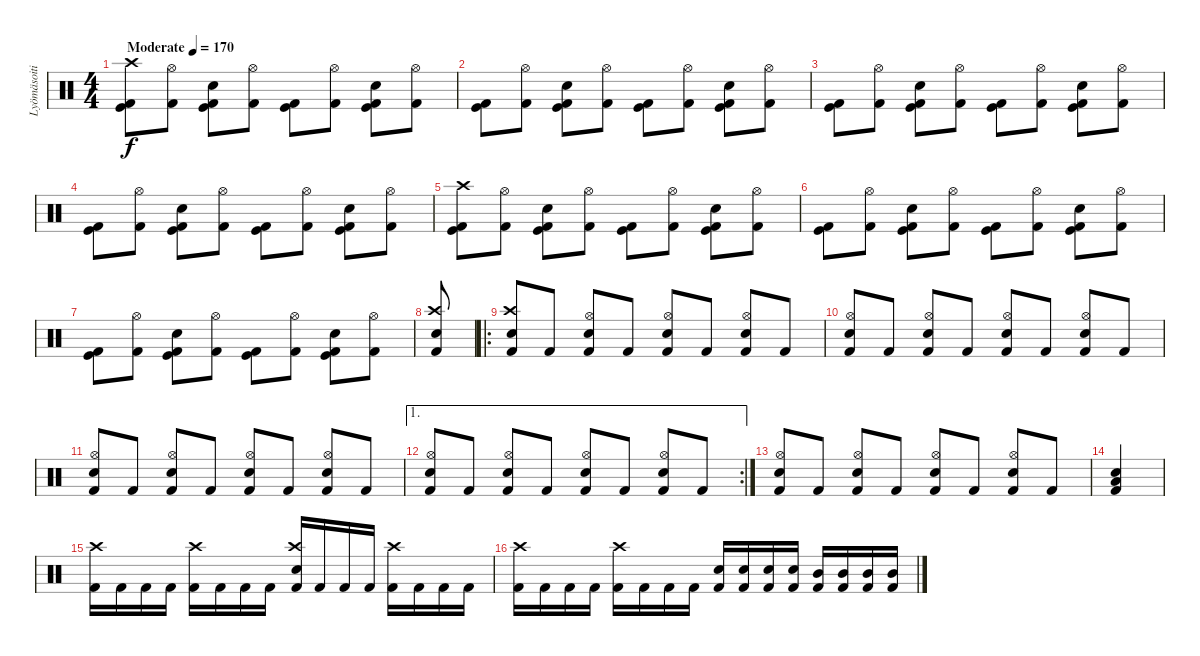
\track ("Lyömäsoitin" "Lyömäsoiti") {instrument percussion}
\staff {score}
\articulation defaults
\ts (4 4)
\tempo (170 "Moderate")
\clef neutral
\ks c
("Kick (hit)" "Kick (hit) 2" "Crash high (hit)").8{dy f} ("Kick (hit) 2" "Hi-Hat (open)").8 ("Kick (hit)" "Kick (hit) 2" "Electric Snare (hit)").8 ("Kick (hit) 2" "Hi-Hat (open)").8 ("Kick (hit)" "Kick (hit) 2").8 ("Kick (hit) 2" "Hi-Hat (open)").8 ("Kick (hit)" "Kick (hit) 2" "Electric Snare (hit)").8 ("Kick (hit) 2" "Hi-Hat (open)").8 |
("Kick (hit)" "Kick (hit) 2").8 ("Kick (hit) 2" "Hi-Hat (open)").8 ("Kick (hit)" "Kick (hit) 2" "Electric Snare (hit)").8 ("Kick (hit) 2" "Hi-Hat (open)").8 ("Kick (hit)" "Kick (hit) 2").8 ("Kick (hit) 2" "Hi-Hat (open)").8 ("Kick (hit)" "Kick (hit) 2" "Electric Snare (hit)").8 ("Kick (hit) 2" "Hi-Hat (open)").8 |
("Kick (hit)" "Kick (hit) 2").8 ("Kick (hit) 2" "Hi-Hat (open)").8 ("Kick (hit)" "Kick (hit) 2" "Electric Snare (hit)").8 ("Kick (hit) 2" "Hi-Hat (open)").8 ("Kick (hit)" "Kick (hit) 2").8 ("Kick (hit) 2" "Hi-Hat (open)").8 ("Kick (hit)" "Kick (hit) 2" "Electric Snare (hit)").8 ("Kick (hit) 2" "Hi-Hat (open)").8 |
("Kick (hit)" "Kick (hit) 2").8 ("Kick (hit) 2" "Hi-Hat (open)").8 ("Kick (hit)" "Kick (hit) 2" "Electric Snare (hit)").8 ("Kick (hit) 2" "Hi-Hat (open)").8 ("Kick (hit)" "Kick (hit) 2").8 ("Kick (hit) 2" "Hi-Hat (open)").8 ("Kick (hit)" "Kick (hit) 2" "Electric Snare (hit)").8 ("Kick (hit) 2" "Hi-Hat (open)").8 |
("Kick (hit)" "Kick (hit) 2" "Crash high (hit)").8 ("Kick (hit) 2" "Hi-Hat (open)").8 ("Kick (hit)" "Kick (hit) 2" "Electric Snare (hit)").8 ("Kick (hit) 2" "Hi-Hat (open)").8 ("Kick (hit)" "Kick (hit) 2").8 ("Kick (hit) 2" "Hi-Hat (open)").8 ("Kick (hit)" "Kick (hit) 2" "Electric Snare (hit)").8 ("Kick (hit) 2" "Hi-Hat (open)").8 |
("Kick (hit)" "Kick (hit) 2").8 ("Kick (hit) 2" "Hi-Hat (open)").8 ("Kick (hit)" "Kick (hit) 2" "Electric Snare (hit)").8 ("Kick (hit) 2" "Hi-Hat (open)").8 ("Kick (hit)" "Kick (hit) 2").8 ("Kick (hit) 2" "Hi-Hat (open)").8 ("Kick (hit)" "Kick (hit) 2" "Electric Snare (hit)").8 ("Kick (hit) 2" "Hi-Hat (open)").8 |
("Kick (hit)" "Kick (hit) 2").8 ("Kick (hit) 2" "Hi-Hat (open)").8 ("Kick (hit)" "Kick (hit) 2" "Electric Snare (hit)").8 ("Kick (hit) 2" "Hi-Hat (open)").8 ("Kick (hit)" "Kick (hit) 2").8 ("Kick (hit) 2" "Hi-Hat (open)").8 ("Kick (hit)" "Kick (hit) 2" "Electric Snare (hit)").8 ("Kick (hit) 2" "Hi-Hat (open)").8 |
("Kick (hit) 2" "Electric Snare (hit)" "Crash high (hit)").8 |
\ro
("Kick (hit) 2" "Electric Snare (hit)" "Crash high (hit)").8 "Kick (hit) 2".8 ("Kick (hit) 2" "Electric Snare (hit)" "Hi-Hat (open)").8 "Kick (hit) 2".8 ("Kick (hit) 2" "Electric Snare (hit)" "Hi-Hat (open)").8 "Kick (hit) 2".8 ("Kick (hit) 2" "Electric Snare (hit)" "Hi-Hat (open)").8 "Kick (hit) 2".8 |
("Kick (hit) 2" "Electric Snare (hit)" "Hi-Hat (open)").8 "Kick (hit) 2".8 ("Kick (hit) 2" "Electric Snare (hit)" "Hi-Hat (open)").8 "Kick (hit) 2".8 ("Kick (hit) 2" "Electric Snare (hit)" "Hi-Hat (open)").8 "Kick (hit) 2".8 ("Kick (hit) 2" "Electric Snare (hit)" "Hi-Hat (open)").8 "Kick (hit) 2".8 |
("Kick (hit) 2" "Electric Snare (hit)" "Hi-Hat (open)").8 "Kick (hit) 2".8 ("Kick (hit) 2" "Electric Snare (hit)" "Hi-Hat (open)").8 "Kick (hit) 2".8 ("Kick (hit) 2" "Electric Snare (hit)" "Hi-Hat (open)").8 "Kick (hit) 2".8 ("Kick (hit) 2" "Electric Snare (hit)" "Hi-Hat (open)").8 "Kick (hit) 2".8 |
\ae 1
\rc 2
("Kick (hit) 2" "Electric Snare (hit)" "Hi-Hat (open)").8 "Kick (hit) 2".8 ("Kick (hit) 2" "Electric Snare (hit)" "Hi-Hat (open)").8 "Kick (hit) 2".8 ("Kick (hit) 2" "Electric Snare (hit)" "Hi-Hat (open)").8 "Kick (hit) 2".8 ("Kick (hit) 2" "Electric Snare (hit)" "Hi-Hat (open)").8 "Kick (hit) 2".8 |
("Kick (hit) 2" "Electric Snare (hit)" "Hi-Hat (open)").8 "Kick (hit) 2".8 ("Kick (hit) 2" "Electric Snare (hit)" "Hi-Hat (open)").8 "Kick (hit) 2".8 ("Kick (hit) 2" "Electric Snare (hit)" "Hi-Hat (open)").8 "Kick (hit) 2".8 ("Kick (hit) 2" "Electric Snare (hit)" "Hi-Hat (open)").8 "Kick (hit) 2".8 |
("Kick (hit) 2" "Electric Snare (hit)" "Low Tom (hit)").4 |
("Kick (hit) 2" "Crash high (hit)").16 "Kick (hit) 2".16 "Kick (hit) 2".16 "Kick (hit) 2".16 ("Kick (hit) 2" "Crash high (hit)").16 "Kick (hit) 2".16 "Kick (hit) 2".16 "Kick (hit) 2".16 ("Kick (hit) 2" "Electric Snare (hit)" "Crash high (hit)").16 "Kick (hit) 2".16 "Kick (hit) 2".16 "Kick (hit) 2".16 ("Kick (hit) 2" "Crash high (hit)").16 "Kick (hit) 2".16 "Kick (hit) 2".16 "Kick (hit) 2".16 |
("Kick (hit) 2" "Crash high (hit)").16 "Kick (hit) 2".16 "Kick (hit) 2".16 "Kick (hit) 2".16 ("Kick (hit) 2" "Crash high (hit)").16 "Kick (hit) 2".16 "Kick (hit) 2".16 "Kick (hit) 2".16 ("Kick (hit) 2" "Electric Snare (hit)").16 ("Kick (hit) 2" "Electric Snare (hit)").16 ("Kick (hit) 2" "Electric Snare (hit)").16 ("Kick (hit) 2" "Electric Snare (hit)").16 ("Kick (hit) 2" "Mid Tom (hit)").16 ("Kick (hit) 2" "Mid Tom (hit)").16 ("Kick (hit) 2" "Mid Tom (hit)").16 ("Kick (hit) 2" "Mid Tom (hit)").16
